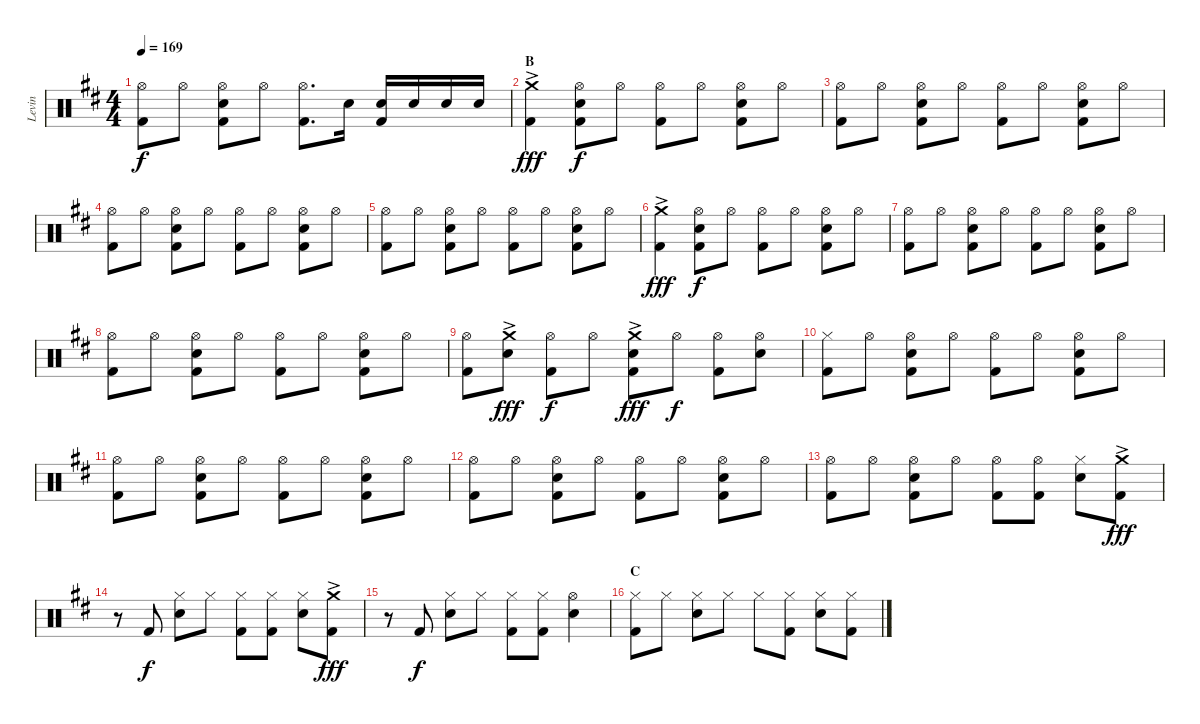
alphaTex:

\track ("Levin" "Levin") {instrument percussion}
\staff {score}
\articulation defaults
\ts (4 4)
\tempo 169
\clef neutral
\ks d
("Hi-Hat (open)" "Kick (hit) 2").8{dy f} "Hi-Hat (open)".8 ("Hi-Hat (open)" "Electric Snare (hit)" "Kick (hit) 2").8 "Hi-Hat (open)".8 ("Hi-Hat (open)" "Kick (hit) 2").8{d} "Electric Snare (hit)".16 ("Electric Snare (hit)" "Kick (hit) 2").16 "Electric Snare (hit)".16 "Electric Snare (hit)".16 "Electric Snare (hit)".16 |
\section ("" "B")
("Crash medium (hit)"{ac} "Kick (hit) 2").4{dy fff} ("Hi-Hat (open)" "Electric Snare (hit)" "Kick (hit) 2").8{dy f} "Hi-Hat (open)".8 ("Hi-Hat (open)" "Kick (hit) 2").8 "Hi-Hat (open)".8 ("Hi-Hat (open)" "Electric Snare (hit)" "Kick (hit) 2").8 "Hi-Hat (open)".8 |
("Hi-Hat (open)" "Kick (hit) 2").8 "Hi-Hat (open)".8 ("Hi-Hat (open)" "Electric Snare (hit)" "Kick (hit) 2").8 "Hi-Hat (open)".8 ("Hi-Hat (open)" "Kick (hit) 2").8 "Hi-Hat (open)".8 ("Hi-Hat (open)" "Electric Snare (hit)" "Kick (hit) 2").8 "Hi-Hat (open)".8 |
("Hi-Hat (open)" "Kick (hit) 2").8 "Hi-Hat (open)".8 ("Hi-Hat (open)" "Electric Snare (hit)" "Kick (hit) 2").8 "Hi-Hat (open)".8 ("Hi-Hat (open)" "Kick (hit) 2").8 "Hi-Hat (open)".8 ("Hi-Hat (open)" "Electric Snare (hit)" "Kick (hit) 2").8 "Hi-Hat (open)".8 |
("Hi-Hat (open)" "Kick (hit) 2").8 "Hi-Hat (open)".8 ("Hi-Hat (open)" "Electric Snare (hit)" "Kick (hit) 2").8 "Hi-Hat (open)".8 ("Hi-Hat (open)" "Kick (hit) 2").8 "Hi-Hat (open)".8 ("Hi-Hat (open)" "Electric Snare (hit)" "Kick (hit) 2").8 "Hi-Hat (open)".8 |
("Crash medium (hit)"{ac} "Kick (hit) 2").4{dy fff} ("Hi-Hat (open)" "Electric Snare (hit)" "Kick (hit) 2").8{dy f} "Hi-Hat (open)".8 ("Hi-Hat (open)" "Kick (hit) 2").8 "Hi-Hat (open)".8 ("Hi-Hat (open)" "Electric Snare (hit)" "Kick (hit) 2").8 "Hi-Hat (open)".8 |
("Hi-Hat (open)" "Kick (hit) 2").8 "Hi-Hat (open)".8 ("Hi-Hat (open)" "Electric Snare (hit)" "Kick (hit) 2").8 "Hi-Hat (open)".8 ("Hi-Hat (open)" "Kick (hit) 2").8 "Hi-Hat (open)".8 ("Hi-Hat (open)" "Electric Snare (hit)" "Kick (hit) 2").8 "Hi-Hat (open)".8 |
("Hi-Hat (open)" "Kick (hit) 2").8 "Hi-Hat (open)".8 ("Hi-Hat (open)" "Electric Snare (hit)" "Kick (hit) 2").8 "Hi-Hat (open)".8 ("Hi-Hat (open)" "Kick (hit) 2").8 "Hi-Hat (open)".8 ("Hi-Hat (open)" "Electric Snare (hit)" "Kick (hit) 2").8 "Hi-Hat (open)".8 |
("Hi-Hat (open)" "Kick (hit) 2").8 ("Crash medium (hit)"{ac} "Electric Snare (hit)").8{dy fff} ("Hi-Hat (open)" "Kick (hit) 2").8{dy f} "Hi-Hat (open)".8 ("Crash medium (hit)"{ac} "Electric Snare (hit)" "Kick (hit) 2").8{dy fff} "Hi-Hat (open)".8{dy f} ("Hi-Hat (open)" "Kick (hit) 2").8 ("Hi-Hat (open)" "Electric Snare (hit)").8 |
("Hi-Hat (closed)" "Kick (hit) 2").8 "Hi-Hat (open)".8 ("Hi-Hat (open)" "Electric Snare (hit)" "Kick (hit) 2").8 "Hi-Hat (open)".8 ("Hi-Hat (open)" "Kick (hit) 2").8 "Hi-Hat (open)".8 ("Hi-Hat (open)" "Electric Snare (hit)" "Kick (hit) 2").8 "Hi-Hat (open)".8 |
("Hi-Hat (open)" "Kick (hit) 2").8 "Hi-Hat (open)".8 ("Hi-Hat (open)" "Electric Snare (hit)" "Kick (hit) 2").8 "Hi-Hat (open)".8 ("Hi-Hat (open)" "Kick (hit) 2").8 "Hi-Hat (open)".8 ("Hi-Hat (open)" "Electric Snare (hit)" "Kick (hit) 2").8 "Hi-Hat (open)".8 |
("Hi-Hat (open)" "Kick (hit) 2").8 "Hi-Hat (open)".8 ("Hi-Hat (open)" "Electric Snare (hit)" "Kick (hit) 2").8 "Hi-Hat (open)".8 ("Hi-Hat (open)" "Kick (hit) 2").8 "Hi-Hat (open)".8 ("Hi-Hat (open)" "Electric Snare (hit)" "Kick (hit) 2").8 "Hi-Hat (open)".8 |
("Hi-Hat (open)" "Kick (hit) 2").8 "Hi-Hat (open)".8 ("Hi-Hat (open)" "Electric Snare (hit)" "Kick (hit) 2").8 "Hi-Hat (open)".8 ("Hi-Hat (open)" "Kick (hit) 2").8 ("Hi-Hat (open)" "Kick (hit) 2").8 ("Hi-Hat (closed)" "Electric Snare (hit)").8 ("Crash medium (hit)"{ac} "Kick (hit) 2").8{dy fff} |
r.8 "Kick (hit) 2".8{dy f} ("Hi-Hat (closed)" "Electric Snare (hit)").8 "Hi-Hat (closed)".8 ("Hi-Hat (closed)" "Kick (hit) 2").8 ("Hi-Hat (closed)" "Kick (hit) 2").8 ("Hi-Hat (closed)" "Electric Snare (hit)").8 ("Crash medium (hit)"{ac} "Kick (hit) 2").8{dy fff} |
r.8 "Kick (hit) 2".8{dy f} ("Hi-Hat (closed)" "Electric Snare (hit)").8 "Hi-Hat (closed)".8 ("Hi-Hat (closed)" "Kick (hit) 2").8 ("Hi-Hat (closed)" "Kick (hit) 2").8 ("Hi-Hat (open)" "Electric Snare (hit)").4 |
\section ("" "C")
("Hi-Hat (closed)" "Kick (hit) 2").8 "Hi-Hat (closed)".8 ("Hi-Hat (closed)" "Electric Snare (hit)").8 "Hi-Hat (closed)".8 "Hi-Hat (closed)".8 ("Hi-Hat (closed)" "Kick (hit) 2").8 ("Hi-Hat (closed)" "Electric Snare (hit)").8 ("Hi-Hat (closed)" "Kick (hit) 2").8
